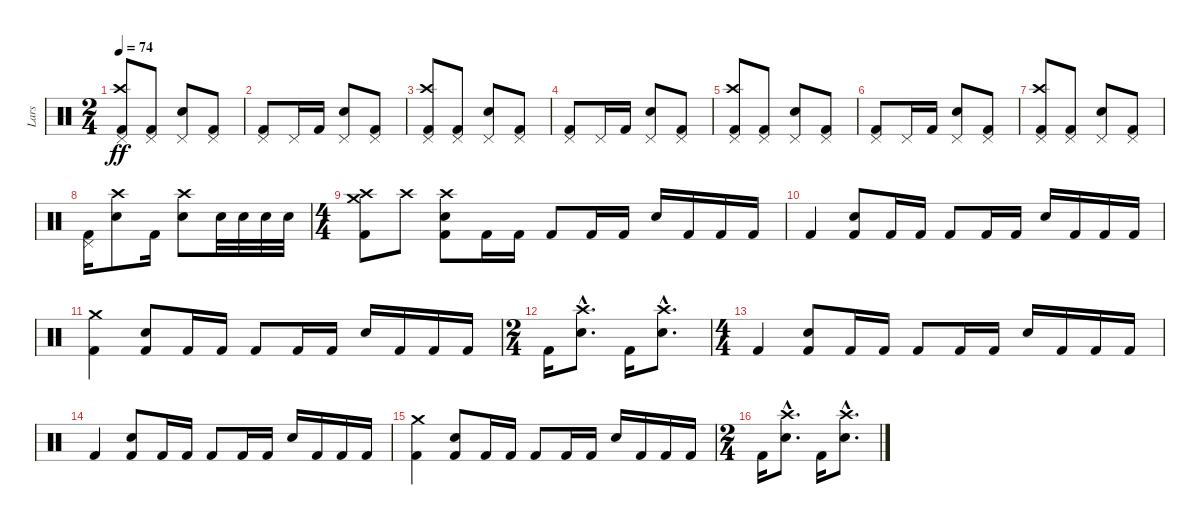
\track ("Lars" "Lars") {instrument percussion}
\staff {score}
\articulation defaults
\ts (2 4)
\tempo 74
\clef neutral
\ks c
("Pedal Hi-Hat (hit)" "Crash high (hit)" "Kick (hit) 2").8{dy ff} ("Pedal Hi-Hat (hit)" "Kick (hit) 2").8 ("Pedal Hi-Hat (hit)" "Snare (hit) 2").8 ("Pedal Hi-Hat (hit)" "Kick (hit) 2").8 |
("Pedal Hi-Hat (hit)" "Kick (hit) 2").8 "Pedal Hi-Hat (hit)".16 "Kick (hit) 2".16 ("Pedal Hi-Hat (hit)" "Snare (hit) 2").8 ("Pedal Hi-Hat (hit)" "Kick (hit) 2").8 |
("Pedal Hi-Hat (hit)" "Crash high (hit)" "Kick (hit) 2").8 ("Pedal Hi-Hat (hit)" "Kick (hit) 2").8 ("Pedal Hi-Hat (hit)" "Snare (hit) 2").8 ("Pedal Hi-Hat (hit)" "Kick (hit) 2").8 |
("Pedal Hi-Hat (hit)" "Kick (hit) 2").8 "Pedal Hi-Hat (hit)".16 "Kick (hit) 2".16 ("Pedal Hi-Hat (hit)" "Snare (hit) 2").8 ("Pedal Hi-Hat (hit)" "Kick (hit) 2").8 |
("Pedal Hi-Hat (hit)" "Crash high (hit)" "Kick (hit) 2").8 ("Pedal Hi-Hat (hit)" "Kick (hit) 2").8 ("Pedal Hi-Hat (hit)" "Snare (hit) 2").8 ("Pedal Hi-Hat (hit)" "Kick (hit) 2").8 |
("Pedal Hi-Hat (hit)" "Kick (hit) 2").8 "Pedal Hi-Hat (hit)".16 "Kick (hit) 2".16 ("Pedal Hi-Hat (hit)" "Snare (hit) 2").8 ("Pedal Hi-Hat (hit)" "Kick (hit) 2").8 |
("Pedal Hi-Hat (hit)" "Crash high (hit)" "Kick (hit) 2").8 ("Pedal Hi-Hat (hit)" "Kick (hit) 2").8 ("Pedal Hi-Hat (hit)" "Snare (hit) 2").8 ("Pedal Hi-Hat (hit)" "Kick (hit) 2").8 |
("Pedal Hi-Hat (hit)" "Kick (hit) 2").16 ("Crash high (hit)" "Snare (hit) 2").8 "Kick (hit) 2".16 ("Crash high (hit)" "Snare (hit) 2").8 "Snare (hit) 2".32 "Snare (hit) 2".32 "Snare (hit) 2".32 "Snare (hit) 2".32 |
\ts (4 4)
("Crash medium (hit)" "Crash high (hit)" "Kick (hit) 2").8 "Crash high (hit)".8 ("Crash high (hit)" "Snare (hit) 2" "Kick (hit) 2").8 "Kick (hit) 2".16 "Kick (hit) 2".16 "Kick (hit) 2".8 "Kick (hit) 2".16 "Kick (hit) 2".16 "Snare (hit) 2".16 "Kick (hit) 2".16 "Kick (hit) 2".16 "Kick (hit) 2".16 |
"Kick (hit) 2".4 ("Snare (hit) 2" "Kick (hit) 2").8 "Kick (hit) 2".16 "Kick (hit) 2".16 "Kick (hit) 2".8 "Kick (hit) 2".16 "Kick (hit) 2".16 "Snare (hit) 2".16 "Kick (hit) 2".16 "Kick (hit) 2".16 "Kick (hit) 2".16 |
("Crash medium (hit)" "Kick (hit) 2").4 ("Snare (hit) 2" "Kick (hit) 2").8 "Kick (hit) 2".16 "Kick (hit) 2".16 "Kick (hit) 2".8 "Kick (hit) 2".16 "Kick (hit) 2".16 "Snare (hit) 2".16 "Kick (hit) 2".16 "Kick (hit) 2".16 "Kick (hit) 2".16 |
\ts (2 4)
"Kick (hit) 2".16 ("Crash high (hit)"{hac} "Snare (hit) 2"{hac}).8{d} "Kick (hit) 2".16 ("Crash high (hit)"{hac} "Snare (hit) 2"{hac}).8{d} |
\ts (4 4)
"Kick (hit) 2".4 ("Snare (hit) 2" "Kick (hit) 2").8 "Kick (hit) 2".16 "Kick (hit) 2".16 "Kick (hit) 2".8 "Kick (hit) 2".16 "Kick (hit) 2".16 "Snare (hit) 2".16 "Kick (hit) 2".16 "Kick (hit) 2".16 "Kick (hit) 2".16 |
"Kick (hit) 2".4 ("Snare (hit) 2" "Kick (hit) 2").8 "Kick (hit) 2".16 "Kick (hit) 2".16 "Kick (hit) 2".8 "Kick (hit) 2".16 "Kick (hit) 2".16 "Snare (hit) 2".16 "Kick (hit) 2".16 "Kick (hit) 2".16 "Kick (hit) 2".16 |
("Crash medium (hit)" "Kick (hit) 2").4 ("Snare (hit) 2" "Kick (hit) 2").8 "Kick (hit) 2".16 "Kick (hit) 2".16 "Kick (hit) 2".8 "Kick (hit) 2".16 "Kick (hit) 2".16 "Snare (hit) 2".16 "Kick (hit) 2".16 "Kick (hit) 2".16 "Kick (hit) 2".16 |
\ts (2 4)
"Kick (hit) 2".16 ("Crash high (hit)"{hac} "Snare (hit) 2"{hac}).8{d} "Kick (hit) 2".16 ("Crash high (hit)"{hac} "Snare (hit) 2"{hac}).8{d}
